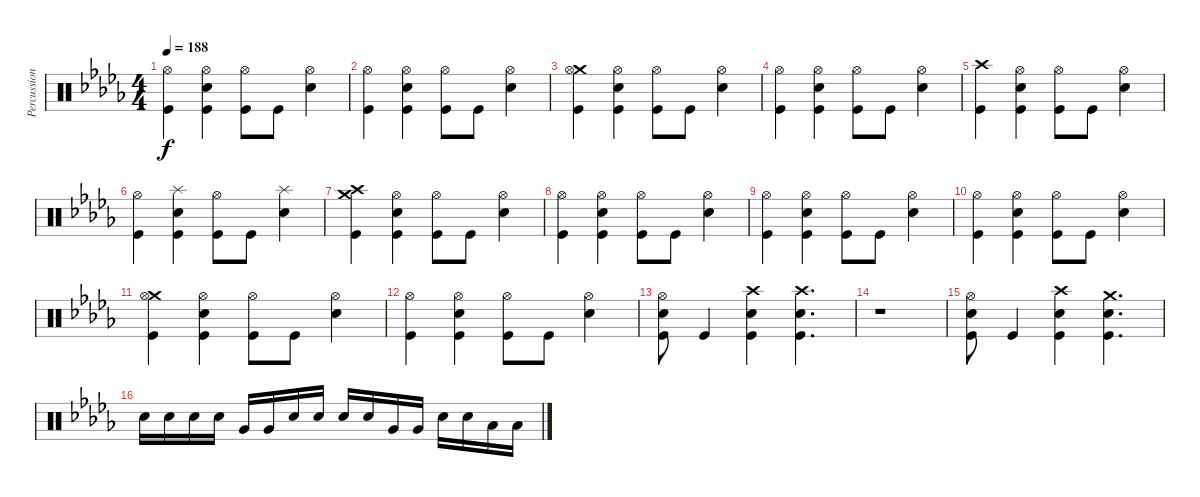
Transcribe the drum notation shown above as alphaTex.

\track ("Percussion" "Percussion") {instrument percussion}
\staff {score}
\articulation defaults
\ts (4 4)
\tempo 188
\clef neutral
\ks db
("Hi-Hat (open)" "Kick (hit)").4{dy f} ("Hi-Hat (open)" "Electric Snare (hit)" "Kick (hit)").4 ("Hi-Hat (open)" "Kick (hit)").8 "Kick (hit)".8 ("Hi-Hat (open)" "Electric Snare (hit)").4 |
("Hi-Hat (open)" "Kick (hit)").4 ("Hi-Hat (open)" "Electric Snare (hit)" "Kick (hit)").4 ("Hi-Hat (open)" "Kick (hit)").8 "Kick (hit)".8 ("Hi-Hat (open)" "Electric Snare (hit)").4 |
("Crash medium (hit)" "Hi-Hat (open)" "Kick (hit)").4 ("Hi-Hat (open)" "Electric Snare (hit)" "Kick (hit)").4 ("Hi-Hat (open)" "Kick (hit)").8 "Kick (hit)".8 ("Hi-Hat (open)" "Electric Snare (hit)").4 |
("Hi-Hat (open)" "Kick (hit)").4 ("Hi-Hat (open)" "Electric Snare (hit)" "Kick (hit)").4 ("Hi-Hat (open)" "Kick (hit)").8 "Kick (hit)".8 ("Hi-Hat (open)" "Electric Snare (hit)").4 |
("Crash high (hit)" "Kick (hit)").4 ("Hi-Hat (open)" "Electric Snare (hit)" "Kick (hit)").4 ("Hi-Hat (open)" "Kick (hit)").8 "Kick (hit)".8 ("Hi-Hat (open)" "Electric Snare (hit)").4 |
("Hi-Hat (open)" "Kick (hit)").4 ("Splash (hit)" "Electric Snare (hit)" "Kick (hit)").4 ("Hi-Hat (open)" "Kick (hit)").8 "Kick (hit)".8 ("Splash (hit)" "Electric Snare (hit)").4 |
("Crash high (hit)" "Crash medium (hit)" "Kick (hit)").4 ("Hi-Hat (open)" "Electric Snare (hit)" "Kick (hit)").4 ("Hi-Hat (open)" "Kick (hit)").8 "Kick (hit)".8 ("Hi-Hat (open)" "Electric Snare (hit)").4 |
("Hi-Hat (open)" "Kick (hit)").4 ("Hi-Hat (open)" "Electric Snare (hit)" "Kick (hit)").4 ("Hi-Hat (open)" "Kick (hit)").8 "Kick (hit)".8 ("Hi-Hat (open)" "Electric Snare (hit)").4 |
("Hi-Hat (open)" "Kick (hit)").4 ("Hi-Hat (open)" "Electric Snare (hit)" "Kick (hit)").4 ("Hi-Hat (open)" "Kick (hit)").8 "Kick (hit)".8 ("Hi-Hat (open)" "Electric Snare (hit)").4 |
("Hi-Hat (open)" "Kick (hit)").4 ("Hi-Hat (open)" "Electric Snare (hit)" "Kick (hit)").4 ("Hi-Hat (open)" "Kick (hit)").8 "Kick (hit)".8 ("Hi-Hat (open)" "Electric Snare (hit)").4 |
("Crash medium (hit)" "Hi-Hat (open)" "Kick (hit)").4 ("Hi-Hat (open)" "Electric Snare (hit)" "Kick (hit)").4 ("Hi-Hat (open)" "Kick (hit)").8 "Kick (hit)".8 ("Hi-Hat (open)" "Electric Snare (hit)").4 |
("Hi-Hat (open)" "Kick (hit)").4 ("Hi-Hat (open)" "Electric Snare (hit)" "Kick (hit)").4 ("Hi-Hat (open)" "Kick (hit)").8 "Kick (hit)".8 ("Hi-Hat (open)" "Electric Snare (hit)").4 |
("Hi-Hat (open)" "Electric Snare (hit)" "Kick (hit)").8 "Kick (hit)".4 ("Crash high (hit)" "Electric Snare (hit)" "Kick (hit)").4 ("Crash high (hit)" "Electric Snare (hit)" "Kick (hit)").4{d} |
r.1 |
("Hi-Hat (open)" "Electric Snare (hit)" "Kick (hit)").8 "Kick (hit)".4 ("Crash high (hit)" "Electric Snare (hit)" "Kick (hit)").4 ("Crash medium (hit)" "Electric Snare (hit)" "Kick (hit)").4{d} |
"Electric Snare (hit)".16 "Electric Snare (hit)".16 "Electric Snare (hit)".16 "Electric Snare (hit)".16 "Very Low Tom (hit)".16 "Very Low Tom (hit)".16 "Electric Snare (hit)".16 "Electric Snare (hit)".16 "Electric Snare (hit)".16 "Electric Snare (hit)".16 "Very Low Tom (hit)".16 "Very Low Tom (hit)".16 "Electric Snare (hit)".16 "Electric Snare (hit)".16 "Low Floor Tom (hit)".16 "Low Floor Tom (hit)".16
